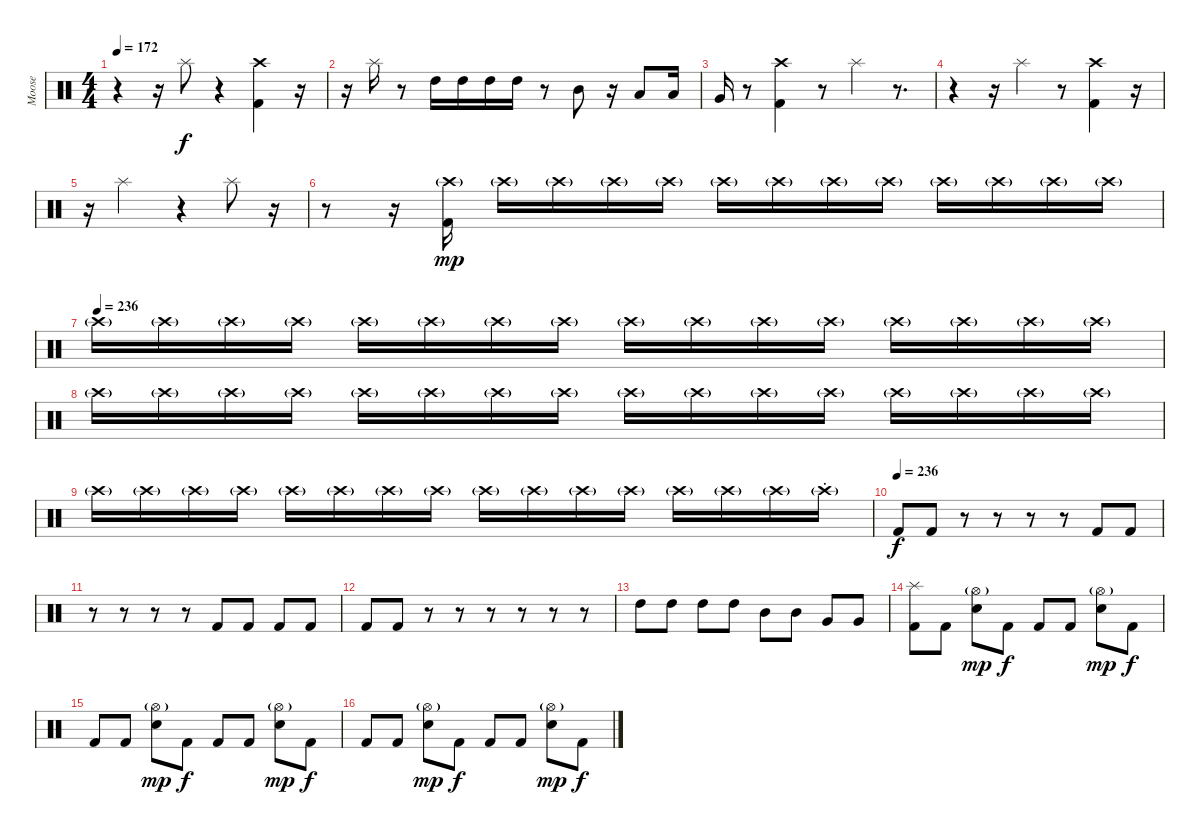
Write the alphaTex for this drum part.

\track ("Moose" "Moose") {instrument percussion}
\staff {score}
\articulation defaults
\ts (4 4)
\tempo 172
\clef neutral
\ks c
r.4{dy f} r.16 "Splash (hit)".8 r.4 ("Crash high (hit)" "Kick (hit) 2").4 r.16 |
r.16 "Splash (hit)".16 r.8 "High Tom (hit)".16 "High Tom (hit)".16 "High Tom (hit)".16 "High Tom (hit)".16 r.8 "Mid Tom (hit)".8 r.16 "Low Tom (hit)".8 "Low Tom (hit)".16 |
"Very Low Tom (hit)".16 r.8 ("Crash high (hit)" "Kick (hit) 2").4 r.8 "Splash (hit)".4 r.8{d} |
r.4 r.16 "Splash (hit)".4 r.8 ("Crash high (hit)" "Kick (hit) 2").4 r.16 |
r.16 "Splash (hit)".2 r.4 "Splash (hit)".8 r.16 |
r.8 r.16 ("Crash high (hit)"{g} "Kick (hit) 2").16{dy mp} "Crash high (hit)"{g}.16 "Crash high (hit)"{g}.16 "Crash high (hit)"{g}.16 "Crash high (hit)"{g}.16 "Crash high (hit)"{g}.16 "Crash high (hit)"{g}.16 "Crash high (hit)"{g}.16 "Crash high (hit)"{g}.16 "Crash high (hit)"{g}.16 "Crash high (hit)"{g}.16 "Crash high (hit)"{g}.16 "Crash high (hit)"{g}.16 |
\tempo (236)
"Crash high (hit)"{g}.16 "Crash high (hit)"{g}.16 "Crash high (hit)"{g}.16 "Crash high (hit)"{g}.16 "Crash high (hit)"{g}.16 "Crash high (hit)"{g}.16 "Crash high (hit)"{g}.16 "Crash high (hit)"{g}.16 "Crash high (hit)"{g}.16 "Crash high (hit)"{g}.16 "Crash high (hit)"{g}.16 "Crash high (hit)"{g}.16 "Crash high (hit)"{g}.16 "Crash high (hit)"{g}.16 "Crash high (hit)"{g}.16 "Crash high (hit)"{g}.16 |
"Crash high (hit)"{g}.16 "Crash high (hit)"{g}.16 "Crash high (hit)"{g}.16 "Crash high (hit)"{g}.16 "Crash high (hit)"{g}.16 "Crash high (hit)"{g}.16 "Crash high (hit)"{g}.16 "Crash high (hit)"{g}.16 "Crash high (hit)"{g}.16 "Crash high (hit)"{g}.16 "Crash high (hit)"{g}.16 "Crash high (hit)"{g}.16 "Crash high (hit)"{g}.16 "Crash high (hit)"{g}.16 "Crash high (hit)"{g}.16 "Crash high (hit)"{g}.16 |
"Crash high (hit)"{g}.16 "Crash high (hit)"{g}.16 "Crash high (hit)"{g}.16 "Crash high (hit)"{g}.16 "Crash high (hit)"{g}.16 "Crash high (hit)"{g}.16 "Crash high (hit)"{g}.16 "Crash high (hit)"{g}.16 "Crash high (hit)"{g}.16 "Crash high (hit)"{g}.16 "Crash high (hit)"{g}.16 "Crash high (hit)"{g}.16 "Crash high (hit)"{g}.16 "Crash high (hit)"{g}.16 "Crash high (hit)"{g}.16 "Crash high (hit)"{g st}.16 |
\tempo (236)
"Kick (hit) 2".8{dy f} "Kick (hit) 2".8 r.8 r.8 r.8 r.8 "Kick (hit) 2".8 "Kick (hit) 2".8 |
r.8 r.8 r.8 r.8 "Kick (hit) 2".8 "Kick (hit) 2".8 "Kick (hit) 2".8 "Kick (hit) 2".8 |
"Kick (hit) 2".8 "Kick (hit) 2".8 r.8 r.8 r.8 r.8 r.8 r.8 |
"High Tom (hit)".8 "High Tom (hit)".8 "High Tom (hit)".8 "High Tom (hit)".8 "Mid Tom (hit)".8 "Mid Tom (hit)".8 "Very Low Tom (hit)".8 "Very Low Tom (hit)".8 |
("Splash (hit)" "Kick (hit) 2").8 "Kick (hit) 2".8 ("Hi-Hat (open)"{g} "Electric Snare (hit)").8{dy mp} "Kick (hit) 2".8{dy f} "Kick (hit) 2".8 "Kick (hit) 2".8 ("Hi-Hat (open)"{g} "Electric Snare (hit)").8{dy mp} "Kick (hit) 2".8{dy f} |
"Kick (hit) 2".8 "Kick (hit) 2".8 ("Hi-Hat (open)"{g} "Electric Snare (hit)").8{dy mp} "Kick (hit) 2".8{dy f} "Kick (hit) 2".8 "Kick (hit) 2".8 ("Hi-Hat (open)"{g} "Electric Snare (hit)").8{dy mp} "Kick (hit) 2".8{dy f} |
"Kick (hit) 2".8 "Kick (hit) 2".8 ("Hi-Hat (open)"{g} "Electric Snare (hit)").8{dy mp} "Kick (hit) 2".8{dy f} "Kick (hit) 2".8 "Kick (hit) 2".8 ("Hi-Hat (open)"{g} "Electric Snare (hit)").8{dy mp} "Kick (hit) 2".8{dy f}
